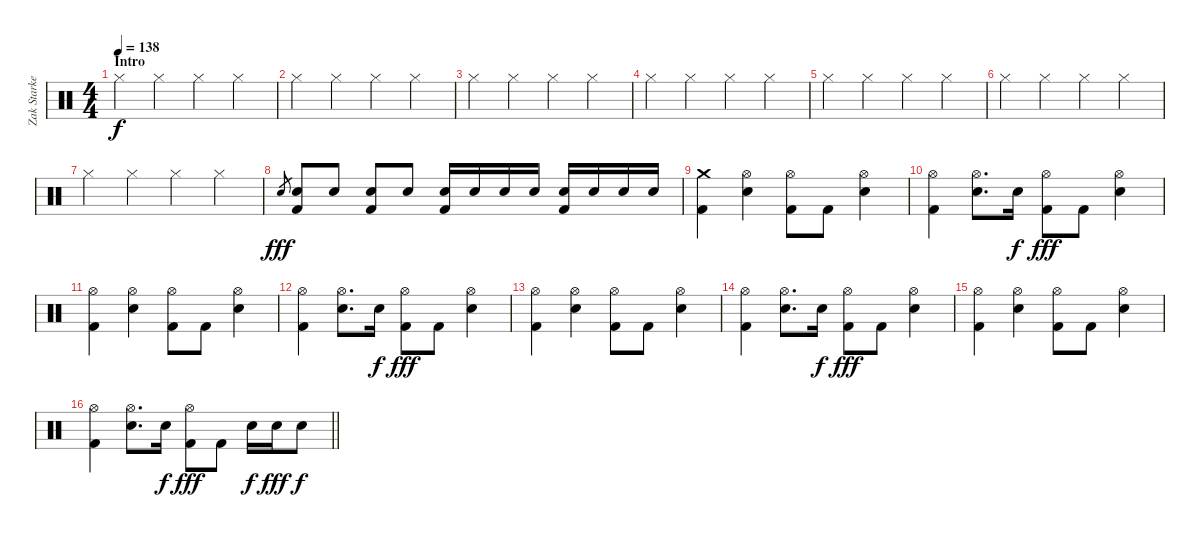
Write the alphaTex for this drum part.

\track ("Zak Starkey" "Zak Starke") {instrument percussion}
\staff {score}
\articulation defaults
\ts (4 4)
\section ("" "Intro")
\tempo 138
\clef neutral
\ks c "Hi-Hat (closed)".4{dy f} "Hi-Hat (closed)".4 "Hi-Hat (closed)".4 "Hi-Hat (closed)".4
|
"Hi-Hat (closed)".4 "Hi-Hat (closed)".4 "Hi-Hat (closed)".4 "Hi-Hat (closed)".4 |
"Hi-Hat (closed)".4 "Hi-Hat (closed)".4 "Hi-Hat (closed)".4 "Hi-Hat (closed)".4 |
"Hi-Hat (closed)".4 "Hi-Hat (closed)".4 "Hi-Hat (closed)".4 "Hi-Hat (closed)".4 |
"Hi-Hat (closed)".4 "Hi-Hat (closed)".4 "Hi-Hat (closed)".4 "Hi-Hat (closed)".4 |
"Hi-Hat (closed)".4 "Hi-Hat (closed)".4 "Hi-Hat (closed)".4 "Hi-Hat (closed)".4 |
"Hi-Hat (closed)".4 "Hi-Hat (closed)".4 "Hi-Hat (closed)".4 "Hi-Hat (closed)".4 |
"Snare (hit) 2".8{gr dy fff} ("Snare (hit) 2" "Kick (hit) 2").8 "Snare (hit) 2".8 ("Snare (hit) 2" "Kick (hit) 2").8 "Snare (hit) 2".8 ("Snare (hit) 2" "Kick (hit) 2").16 "Snare (hit) 2".16 "Snare (hit) 2".16 "Snare (hit) 2".16 ("Snare (hit) 2" "Kick (hit) 2").16 "Snare (hit) 2".16 "Snare (hit) 2".16 "Snare (hit) 2".16 |
("Crash medium (hit)" "Kick (hit) 2").4 ("Hi-Hat (open)" "Snare (hit) 2").4 ("Hi-Hat (open)" "Kick (hit) 2").8 "Kick (hit) 2".8 ("Hi-Hat (open)" "Snare (hit) 2").4 |
("Hi-Hat (open)" "Kick (hit) 2").4 ("Hi-Hat (open)" "Snare (hit) 2").8{d} "Snare (hit) 2".16{dy f} ("Hi-Hat (open)" "Kick (hit) 2").8{dy fff} "Kick (hit) 2".8 ("Hi-Hat (open)" "Snare (hit) 2").4 |
("Hi-Hat (open)" "Kick (hit) 2").4 ("Hi-Hat (open)" "Snare (hit) 2").4 ("Hi-Hat (open)" "Kick (hit) 2").8 "Kick (hit) 2".8 ("Hi-Hat (open)" "Snare (hit) 2").4 |
("Hi-Hat (open)" "Kick (hit) 2").4 ("Hi-Hat (open)" "Snare (hit) 2").8{d} "Snare (hit) 2".16{dy f} ("Hi-Hat (open)" "Kick (hit) 2").8{dy fff} "Kick (hit) 2".8 ("Hi-Hat (open)" "Snare (hit) 2").4 |
("Hi-Hat (open)" "Kick (hit) 2").4 ("Hi-Hat (open)" "Snare (hit) 2").4 ("Hi-Hat (open)" "Kick (hit) 2").8 "Kick (hit) 2".8 ("Hi-Hat (open)" "Snare (hit) 2").4 |
("Hi-Hat (open)" "Kick (hit) 2").4 ("Hi-Hat (open)" "Snare (hit) 2").8{d} "Snare (hit) 2".16{dy f} ("Hi-Hat (open)" "Kick (hit) 2").8{dy fff} "Kick (hit) 2".8 ("Hi-Hat (open)" "Snare (hit) 2").4 |
("Hi-Hat (open)" "Kick (hit) 2").4 ("Hi-Hat (open)" "Snare (hit) 2").4 ("Hi-Hat (open)" "Kick (hit) 2").8 "Kick (hit) 2".8 ("Hi-Hat (open)" "Snare (hit) 2").4 |
\barLineRight lightlight
("Hi-Hat (open)" "Kick (hit) 2").4 ("Hi-Hat (open)" "Snare (hit) 2").8{d} "Snare (hit) 2".16{dy f} ("Hi-Hat (open)" "Kick (hit) 2").8{dy fff} "Kick (hit) 2".8 "Snare (hit) 2".16{dy f} "Snare (hit) 2".16{dy fff} "Snare (hit) 2".8{dy f}
